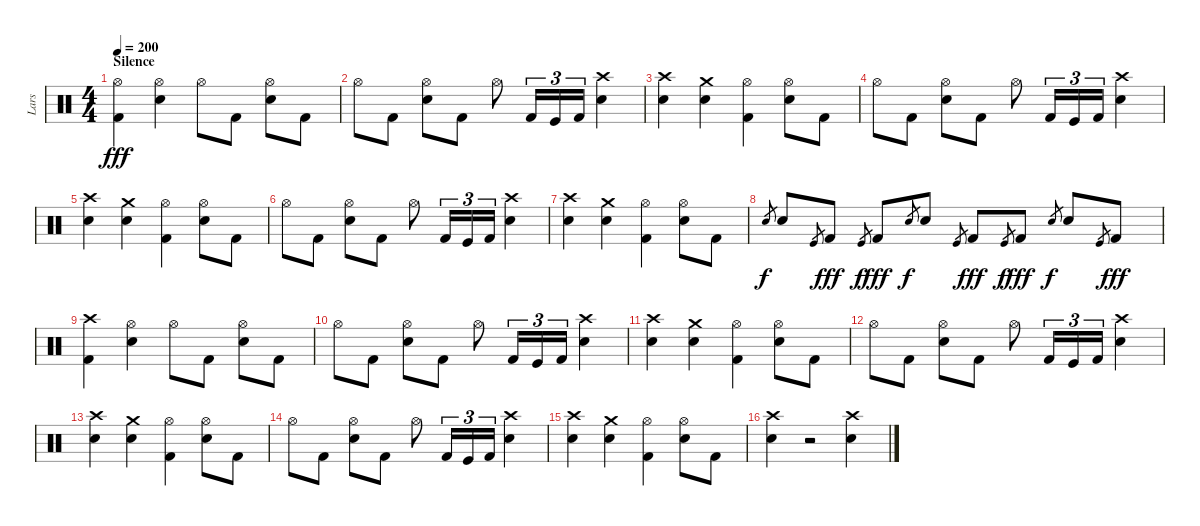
\track ("Lars" "Lars") {instrument percussion}
\staff {score}
\articulation defaults
\ts (4 4)
\section ("" "Silence")
\tempo 200
\clef neutral
\ks c
("Hi-Hat (open)" "Kick (hit) 2").4{dy fff} ("Hi-Hat (open)" "Snare (hit) 2").4 "Hi-Hat (open)".8 "Kick (hit) 2".8 ("Hi-Hat (open)" "Snare (hit) 2").8 "Kick (hit) 2".8 |
"Hi-Hat (open)".8 "Kick (hit) 2".8 ("Hi-Hat (open)" "Snare (hit) 2").8 "Kick (hit) 2".8 "Hi-Hat (open)".8 "Kick (hit) 2".16{tu (3 2)} "Kick (hit)".16{tu (3 2)} "Kick (hit) 2".16{tu (3 2)} ("Crash high (hit)" "Snare (hit) 2").4 |
("Crash high (hit)" "Snare (hit) 2").4 ("Crash medium (hit)" "Snare (hit) 2").4 ("Hi-Hat (open)" "Kick (hit) 2").4 ("Hi-Hat (open)" "Snare (hit) 2").8 "Kick (hit) 2".8 |
"Hi-Hat (open)".8 "Kick (hit) 2".8 ("Hi-Hat (open)" "Snare (hit) 2").8 "Kick (hit) 2".8 "Hi-Hat (open)".8 "Kick (hit) 2".16{tu (3 2)} "Kick (hit)".16{tu (3 2)} "Kick (hit) 2".16{tu (3 2)} ("Crash high (hit)" "Snare (hit) 2").4 |
("Crash high (hit)" "Snare (hit) 2").4 ("Crash medium (hit)" "Snare (hit) 2").4 ("Hi-Hat (open)" "Kick (hit) 2").4 ("Hi-Hat (open)" "Snare (hit) 2").8 "Kick (hit) 2".8 |
"Hi-Hat (open)".8 "Kick (hit) 2".8 ("Hi-Hat (open)" "Snare (hit) 2").8 "Kick (hit) 2".8 "Hi-Hat (open)".8 "Kick (hit) 2".16{tu (3 2)} "Kick (hit)".16{tu (3 2)} "Kick (hit) 2".16{tu (3 2)} ("Crash high (hit)" "Snare (hit) 2").4 |
("Crash high (hit)" "Snare (hit) 2").4 ("Crash medium (hit)" "Snare (hit) 2").4 ("Hi-Hat (open)" "Kick (hit) 2").4 ("Hi-Hat (open)" "Snare (hit) 2").8 "Kick (hit) 2".8 |
"Snare (hit) 2".8{gr dy f} "Snare (hit) 2".8 "Kick (hit)".8{gr} "Kick (hit) 2".8{dy fff} "Kick (hit)".8{gr dy f} "Kick (hit) 2".8{dy fff} "Snare (hit) 2".8{gr dy f} "Snare (hit) 2".8 "Kick (hit)".8{gr} "Kick (hit) 2".8{dy fff} "Kick (hit)".8{gr dy f} "Kick (hit) 2".8{dy fff} "Snare (hit) 2".8{gr dy f} "Snare (hit) 2".8 "Kick (hit)".8{gr} "Kick (hit) 2".8{dy fff} |
("Crash high (hit)" "Kick (hit) 2").4 ("Hi-Hat (open)" "Snare (hit) 2").4 "Hi-Hat (open)".8 "Kick (hit) 2".8 ("Hi-Hat (open)" "Snare (hit) 2").8 "Kick (hit) 2".8 |
"Hi-Hat (open)".8 "Kick (hit) 2".8 ("Hi-Hat (open)" "Snare (hit) 2").8 "Kick (hit) 2".8 "Hi-Hat (open)".8 "Kick (hit) 2".16{tu (3 2)} "Kick (hit)".16{tu (3 2)} "Kick (hit) 2".16{tu (3 2)} ("Crash high (hit)" "Snare (hit) 2").4 |
("Crash high (hit)" "Snare (hit) 2").4 ("Crash medium (hit)" "Snare (hit) 2").4 ("Hi-Hat (open)" "Kick (hit) 2").4 ("Hi-Hat (open)" "Snare (hit) 2").8 "Kick (hit) 2".8 |
"Hi-Hat (open)".8 "Kick (hit) 2".8 ("Hi-Hat (open)" "Snare (hit) 2").8 "Kick (hit) 2".8 "Hi-Hat (open)".8 "Kick (hit) 2".16{tu (3 2)} "Kick (hit)".16{tu (3 2)} "Kick (hit) 2".16{tu (3 2)} ("Crash high (hit)" "Snare (hit) 2").4 |
("Crash high (hit)" "Snare (hit) 2").4 ("Crash medium (hit)" "Snare (hit) 2").4 ("Hi-Hat (open)" "Kick (hit) 2").4 ("Hi-Hat (open)" "Snare (hit) 2").8 "Kick (hit) 2".8 |
"Hi-Hat (open)".8 "Kick (hit) 2".8 ("Hi-Hat (open)" "Snare (hit) 2").8 "Kick (hit) 2".8 "Hi-Hat (open)".8 "Kick (hit) 2".16{tu (3 2)} "Kick (hit)".16{tu (3 2)} "Kick (hit) 2".16{tu (3 2)} ("Crash high (hit)" "Snare (hit) 2").4 |
("Crash high (hit)" "Snare (hit) 2").4 ("Crash medium (hit)" "Snare (hit) 2").4 ("Hi-Hat (open)" "Kick (hit) 2").4 ("Hi-Hat (open)" "Snare (hit) 2").8 "Kick (hit) 2".8 |
("Crash high (hit)" "Snare (hit) 2").4 r.2 ("Crash high (hit)" "Snare (hit) 2").4
